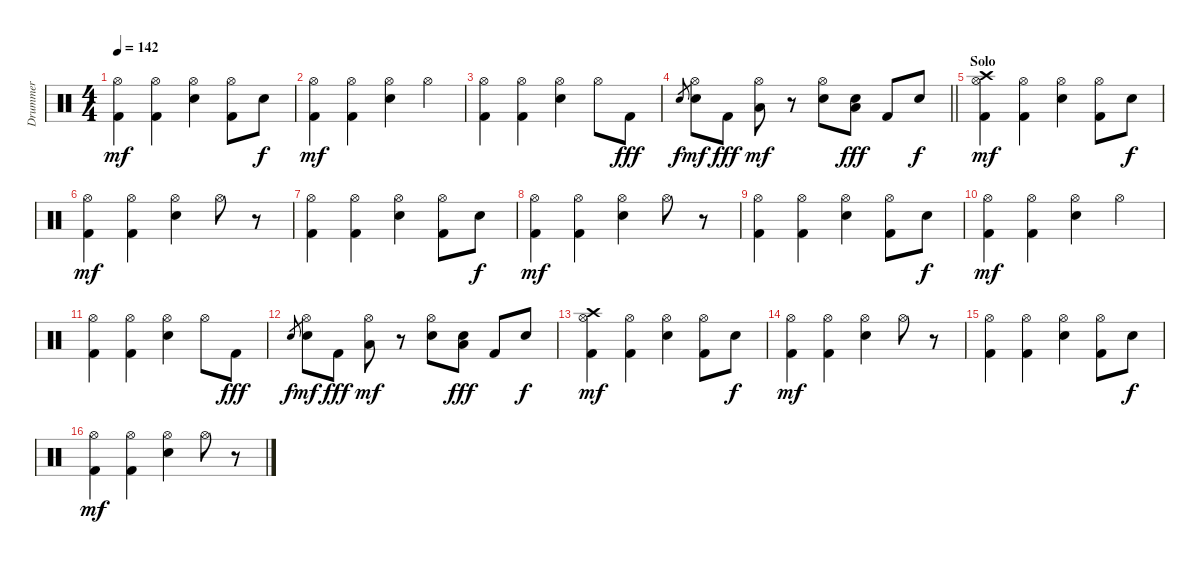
\track ("Drummer" "Drummer") {instrument percussion}
\staff {score}
\articulation defaults
\ts (4 4)
\tempo 142
\clef neutral
\ks c
("Kick (hit) 2" "Hi-Hat (open)").4{dy mf} ("Kick (hit) 2" "Hi-Hat (open)").4 ("Electric Snare (hit)" "Hi-Hat (open)").4 ("Kick (hit) 2" "Hi-Hat (open)").8 "Electric Snare (hit)".8{dy f} |
("Kick (hit) 2" "Hi-Hat (open)").4{dy mf} ("Kick (hit) 2" "Hi-Hat (open)").4 ("Electric Snare (hit)" "Hi-Hat (open)").4 "Hi-Hat (open)".4 |
("Kick (hit) 2" "Hi-Hat (open)").4 ("Kick (hit) 2" "Hi-Hat (open)").4 ("Electric Snare (hit)" "Hi-Hat (open)").4 "Hi-Hat (open)".8 "Kick (hit) 2".8{dy fff} |
\barLineRight lightlight "Electric Snare (hit)".8{gr dy f}
("Electric Snare (hit)" "Hi-Hat (open)").8{dy mf} "Kick (hit) 2".8{dy fff} ("Low Tom (hit)" "Hi-Hat (open)").8{dy mf} r.8 ("Electric Snare (hit)" "Hi-Hat (open)").8 ("Electric Snare (hit)" "Low Tom (hit)").8{dy fff} "Kick (hit) 2".8 "Electric Snare (hit)".8{dy f} |
\section ("" "Solo")
("Kick (hit) 2" "Hi-Hat (open)" "Crash high (hit)").4{dy mf} ("Kick (hit) 2" "Hi-Hat (open)").4 ("Electric Snare (hit)" "Hi-Hat (open)").4 ("Kick (hit) 2" "Hi-Hat (open)").8 "Electric Snare (hit)".8{dy f} |
("Kick (hit) 2" "Hi-Hat (open)").4{dy mf} ("Kick (hit) 2" "Hi-Hat (open)").4 ("Electric Snare (hit)" "Hi-Hat (open)").4 "Hi-Hat (open)".8 r.8 |
("Kick (hit) 2" "Hi-Hat (open)").4 ("Kick (hit) 2" "Hi-Hat (open)").4 ("Electric Snare (hit)" "Hi-Hat (open)").4 ("Kick (hit) 2" "Hi-Hat (open)").8 "Electric Snare (hit)".8{dy f} |
("Kick (hit) 2" "Hi-Hat (open)").4{dy mf} ("Kick (hit) 2" "Hi-Hat (open)").4 ("Electric Snare (hit)" "Hi-Hat (open)").4 "Hi-Hat (open)".8 r.8 |
("Kick (hit) 2" "Hi-Hat (open)").4 ("Kick (hit) 2" "Hi-Hat (open)").4 ("Electric Snare (hit)" "Hi-Hat (open)").4 ("Kick (hit) 2" "Hi-Hat (open)").8 "Electric Snare (hit)".8{dy f} |
("Kick (hit) 2" "Hi-Hat (open)").4{dy mf} ("Kick (hit) 2" "Hi-Hat (open)").4 ("Electric Snare (hit)" "Hi-Hat (open)").4 "Hi-Hat (open)".4 |
("Kick (hit) 2" "Hi-Hat (open)").4 ("Kick (hit) 2" "Hi-Hat (open)").4 ("Electric Snare (hit)" "Hi-Hat (open)").4 "Hi-Hat (open)".8 "Kick (hit) 2".8{dy fff} |
"Electric Snare (hit)".8{gr dy f} ("Electric Snare (hit)" "Hi-Hat (open)").8{dy mf} "Kick (hit) 2".8{dy fff} ("Low Tom (hit)" "Hi-Hat (open)").8{dy mf} r.8 ("Electric Snare (hit)" "Hi-Hat (open)").8 ("Electric Snare (hit)" "Low Tom (hit)").8{dy fff} "Kick (hit) 2".8 "Electric Snare (hit)".8{dy f} |
("Kick (hit) 2" "Hi-Hat (open)" "Crash high (hit)").4{dy mf} ("Kick (hit) 2" "Hi-Hat (open)").4 ("Electric Snare (hit)" "Hi-Hat (open)").4 ("Kick (hit) 2" "Hi-Hat (open)").8 "Electric Snare (hit)".8{dy f} |
("Kick (hit) 2" "Hi-Hat (open)").4{dy mf} ("Kick (hit) 2" "Hi-Hat (open)").4 ("Electric Snare (hit)" "Hi-Hat (open)").4 "Hi-Hat (open)".8 r.8 |
("Kick (hit) 2" "Hi-Hat (open)").4 ("Kick (hit) 2" "Hi-Hat (open)").4 ("Electric Snare (hit)" "Hi-Hat (open)").4 ("Kick (hit) 2" "Hi-Hat (open)").8 "Electric Snare (hit)".8{dy f} |
("Kick (hit) 2" "Hi-Hat (open)").4{dy mf} ("Kick (hit) 2" "Hi-Hat (open)").4 ("Electric Snare (hit)" "Hi-Hat (open)").4 "Hi-Hat (open)".8 r.8
